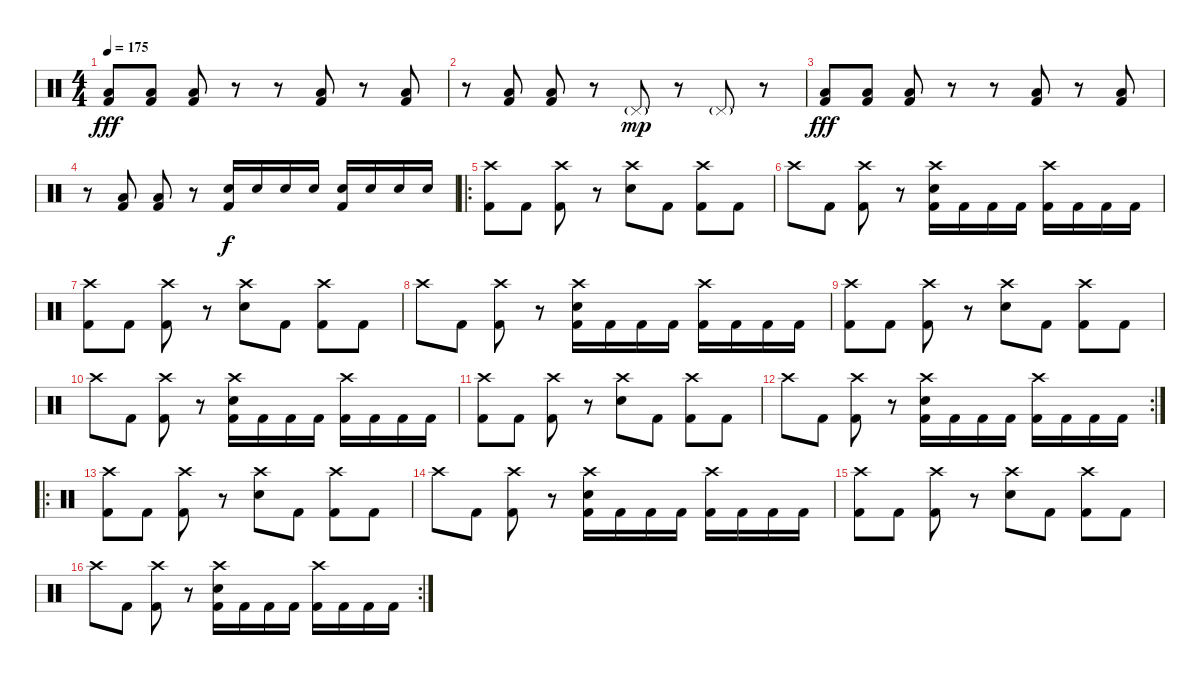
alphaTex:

\track "" {instrument percussion}
\staff {score}
\articulation defaults
\ts (4 4)
\tempo 175
\clef neutral
\ks c
("Low Floor Tom (hit)" "Kick (hit) 2").8{dy fff} ("Low Floor Tom (hit)" "Kick (hit) 2").8 ("Low Floor Tom (hit)" "Kick (hit) 2").8 r.8 r.8 ("Low Floor Tom (hit)" "Kick (hit) 2").8 r.8 ("Low Floor Tom (hit)" "Kick (hit) 2").8 |
r.8 ("Low Floor Tom (hit)" "Kick (hit) 2").8 ("Low Floor Tom (hit)" "Kick (hit) 2").8 r.8 "Pedal Hi-Hat (hit)"{g}.8{dy mp} r.8 "Pedal Hi-Hat (hit)"{g}.8 r.8 |
("Low Floor Tom (hit)" "Kick (hit) 2").8{dy fff} ("Low Floor Tom (hit)" "Kick (hit) 2").8 ("Low Floor Tom (hit)" "Kick (hit) 2").8 r.8 r.8 ("Low Floor Tom (hit)" "Kick (hit) 2").8 r.8 ("Low Floor Tom (hit)" "Kick (hit) 2").8 |
r.8 ("Low Floor Tom (hit)" "Kick (hit) 2").8 ("Low Floor Tom (hit)" "Kick (hit) 2").8 r.8 ("Electric Snare (hit)" "Kick (hit) 2").16{dy f} "Electric Snare (hit)".16 "Electric Snare (hit)".16 "Electric Snare (hit)".16 ("Electric Snare (hit)" "Kick (hit) 2").16 "Electric Snare (hit)".16 "Electric Snare (hit)".16 "Electric Snare (hit)".16 |
\ro
("Crash high (hit)" "Kick (hit) 2").8 "Kick (hit) 2".8 ("Crash high (hit)" "Kick (hit) 2").8 r.8 ("Crash high (hit)" "Electric Snare (hit)").8 "Kick (hit) 2".8 ("Crash high (hit)" "Kick (hit) 2").8 "Kick (hit) 2".8 |
"Crash high (hit)".8 "Kick (hit) 2".8 ("Crash high (hit)" "Kick (hit) 2").8 r.8 ("Crash high (hit)" "Electric Snare (hit)" "Kick (hit) 2").16 "Kick (hit) 2".16 "Kick (hit) 2".16 "Kick (hit) 2".16 ("Crash high (hit)" "Kick (hit) 2").16 "Kick (hit) 2".16 "Kick (hit) 2".16 "Kick (hit) 2".16 |
("Crash high (hit)" "Kick (hit) 2").8 "Kick (hit) 2".8 ("Crash high (hit)" "Kick (hit) 2").8 r.8 ("Crash high (hit)" "Electric Snare (hit)").8 "Kick (hit) 2".8 ("Crash high (hit)" "Kick (hit) 2").8 "Kick (hit) 2".8 |
"Crash high (hit)".8 "Kick (hit) 2".8 ("Crash high (hit)" "Kick (hit) 2").8 r.8 ("Crash high (hit)" "Electric Snare (hit)" "Kick (hit) 2").16 "Kick (hit) 2".16 "Kick (hit) 2".16 "Kick (hit) 2".16 ("Crash high (hit)" "Kick (hit) 2").16 "Kick (hit) 2".16 "Kick (hit) 2".16 "Kick (hit) 2".16 |
("Crash high (hit)" "Kick (hit) 2").8 "Kick (hit) 2".8 ("Crash high (hit)" "Kick (hit) 2").8 r.8 ("Crash high (hit)" "Electric Snare (hit)").8 "Kick (hit) 2".8 ("Crash high (hit)" "Kick (hit) 2").8 "Kick (hit) 2".8 |
"Crash high (hit)".8 "Kick (hit) 2".8 ("Crash high (hit)" "Kick (hit) 2").8 r.8 ("Crash high (hit)" "Electric Snare (hit)" "Kick (hit) 2").16 "Kick (hit) 2".16 "Kick (hit) 2".16 "Kick (hit) 2".16 ("Crash high (hit)" "Kick (hit) 2").16 "Kick (hit) 2".16 "Kick (hit) 2".16 "Kick (hit) 2".16 |
("Crash high (hit)" "Kick (hit) 2").8 "Kick (hit) 2".8 ("Crash high (hit)" "Kick (hit) 2").8 r.8 ("Crash high (hit)" "Electric Snare (hit)").8 "Kick (hit) 2".8 ("Crash high (hit)" "Kick (hit) 2").8 "Kick (hit) 2".8 |
\rc 2 "Crash high (hit)".8 "Kick (hit) 2".8
("Crash high (hit)" "Kick (hit) 2").8 r.8 ("Crash high (hit)" "Electric Snare (hit)" "Kick (hit) 2").16 "Kick (hit) 2".16 "Kick (hit) 2".16 "Kick (hit) 2".16 ("Crash high (hit)" "Kick (hit) 2").16 "Kick (hit) 2".16 "Kick (hit) 2".16 "Kick (hit) 2".16 |
\ro
("Crash high (hit)" "Kick (hit) 2").8 "Kick (hit) 2".8 ("Crash high (hit)" "Kick (hit) 2").8 r.8 ("Crash high (hit)" "Electric Snare (hit)").8 "Kick (hit) 2".8 ("Crash high (hit)" "Kick (hit) 2").8 "Kick (hit) 2".8 |
"Crash high (hit)".8 "Kick (hit) 2".8 ("Crash high (hit)" "Kick (hit) 2").8 r.8 ("Crash high (hit)" "Electric Snare (hit)" "Kick (hit) 2").16 "Kick (hit) 2".16 "Kick (hit) 2".16 "Kick (hit) 2".16 ("Crash high (hit)" "Kick (hit) 2").16 "Kick (hit) 2".16 "Kick (hit) 2".16 "Kick (hit) 2".16 |
("Crash high (hit)" "Kick (hit) 2").8 "Kick (hit) 2".8 ("Crash high (hit)" "Kick (hit) 2").8 r.8 ("Crash high (hit)" "Electric Snare (hit)").8 "Kick (hit) 2".8 ("Crash high (hit)" "Kick (hit) 2").8 "Kick (hit) 2".8 |
\rc 2 "Crash high (hit)".8 "Kick (hit) 2".8
("Crash high (hit)" "Kick (hit) 2").8 r.8 ("Crash high (hit)" "Electric Snare (hit)" "Kick (hit) 2").16 "Kick (hit) 2".16 "Kick (hit) 2".16 "Kick (hit) 2".16 ("Crash high (hit)" "Kick (hit) 2").16 "Kick (hit) 2".16 "Kick (hit) 2".16 "Kick (hit) 2".16
